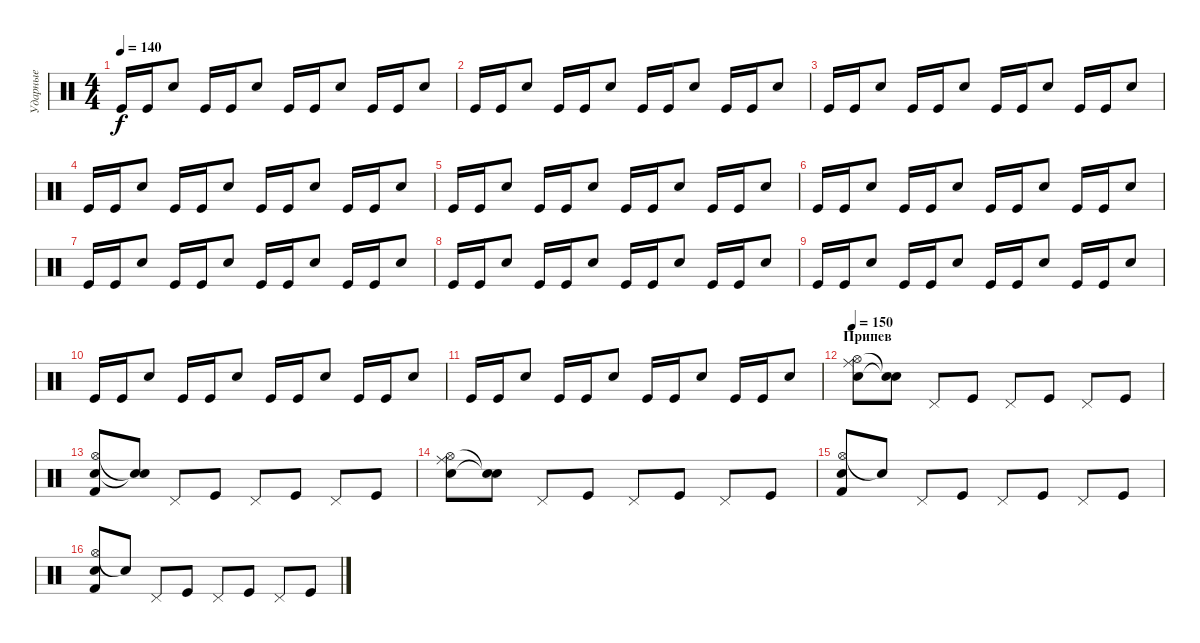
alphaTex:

\track ("Ударные" "Ударные") {instrument percussion}
\staff {score}
\articulation defaults
\ts (4 4)
\tempo 140
\clef neutral
\ks c "Kick (hit)".16{dy f} "Kick (hit)".16 "Electric Snare (hit)".8 "Kick (hit)".16 "Kick (hit)".16 "Electric Snare (hit)".8 "Kick (hit)".16 "Kick (hit)".16 "Electric Snare (hit)".8 "Kick (hit)".16 "Kick (hit)".16 "Electric Snare (hit)".8
|
"Kick (hit)".16 "Kick (hit)".16 "Electric Snare (hit)".8 "Kick (hit)".16 "Kick (hit)".16 "Electric Snare (hit)".8 "Kick (hit)".16 "Kick (hit)".16 "Electric Snare (hit)".8 "Kick (hit)".16 "Kick (hit)".16 "Electric Snare (hit)".8 |
"Kick (hit)".16 "Kick (hit)".16 "Electric Snare (hit)".8 "Kick (hit)".16 "Kick (hit)".16 "Electric Snare (hit)".8 "Kick (hit)".16 "Kick (hit)".16 "Electric Snare (hit)".8 "Kick (hit)".16 "Kick (hit)".16 "Electric Snare (hit)".8 |
"Kick (hit)".16 "Kick (hit)".16 "Electric Snare (hit)".8 "Kick (hit)".16 "Kick (hit)".16 "Electric Snare (hit)".8 "Kick (hit)".16 "Kick (hit)".16 "Electric Snare (hit)".8 "Kick (hit)".16 "Kick (hit)".16 "Electric Snare (hit)".8 |
"Kick (hit)".16 "Kick (hit)".16 "Electric Snare (hit)".8 "Kick (hit)".16 "Kick (hit)".16 "Electric Snare (hit)".8 "Kick (hit)".16 "Kick (hit)".16 "Electric Snare (hit)".8 "Kick (hit)".16 "Kick (hit)".16 "Electric Snare (hit)".8 |
"Kick (hit)".16 "Kick (hit)".16 "Electric Snare (hit)".8 "Kick (hit)".16 "Kick (hit)".16 "Electric Snare (hit)".8 "Kick (hit)".16 "Kick (hit)".16 "Electric Snare (hit)".8 "Kick (hit)".16 "Kick (hit)".16 "Electric Snare (hit)".8 |
"Kick (hit)".16 "Kick (hit)".16 "Electric Snare (hit)".8 "Kick (hit)".16 "Kick (hit)".16 "Electric Snare (hit)".8 "Kick (hit)".16 "Kick (hit)".16 "Electric Snare (hit)".8 "Kick (hit)".16 "Kick (hit)".16 "Electric Snare (hit)".8 |
"Kick (hit)".16 "Kick (hit)".16 "Electric Snare (hit)".8 "Kick (hit)".16 "Kick (hit)".16 "Electric Snare (hit)".8 "Kick (hit)".16 "Kick (hit)".16 "Electric Snare (hit)".8 "Kick (hit)".16 "Kick (hit)".16 "Electric Snare (hit)".8 |
"Kick (hit)".16 "Kick (hit)".16 "Electric Snare (hit)".8 "Kick (hit)".16 "Kick (hit)".16 "Electric Snare (hit)".8 "Kick (hit)".16 "Kick (hit)".16 "Electric Snare (hit)".8 "Kick (hit)".16 "Kick (hit)".16 "Electric Snare (hit)".8 |
"Kick (hit)".16 "Kick (hit)".16 "Electric Snare (hit)".8 "Kick (hit)".16 "Kick (hit)".16 "Electric Snare (hit)".8 "Kick (hit)".16 "Kick (hit)".16 "Electric Snare (hit)".8 "Kick (hit)".16 "Kick (hit)".16 "Electric Snare (hit)".8 |
"Kick (hit)".16 "Kick (hit)".16 "Electric Snare (hit)".8 "Kick (hit)".16 "Kick (hit)".16 "Electric Snare (hit)".8 "Kick (hit)".16 "Kick (hit)".16 "Electric Snare (hit)".8 "Kick (hit)".16 "Kick (hit)".16 "Electric Snare (hit)".8 |
\section ("" "Припев")
\tempo 150
("Hi-Hat (open)" "Electric Snare (hit)" "Ride (middle)").8 ("Electric Snare (hit)"{t} "Snare (hit)"{t}).8 "Pedal Hi-Hat (hit)".8 "Kick (hit)".8 "Pedal Hi-Hat (hit)".8 "Kick (hit)".8 "Pedal Hi-Hat (hit)".8 "Kick (hit)".8 |
("Hi-Hat (open)" "Electric Snare (hit)" "Kick (hit) 2").8 ("Electric Snare (hit)"{t} "Snare (hit)"{t}).8 "Pedal Hi-Hat (hit)".8 "Kick (hit)".8 "Pedal Hi-Hat (hit)".8 "Kick (hit)".8 "Pedal Hi-Hat (hit)".8 "Kick (hit)".8 |
("Hi-Hat (open)" "Electric Snare (hit)" "Ride (middle)").8 ("Electric Snare (hit)"{t} "Snare (hit)"{t}).8 "Pedal Hi-Hat (hit)".8 "Kick (hit)".8 "Pedal Hi-Hat (hit)".8 "Kick (hit)".8 "Pedal Hi-Hat (hit)".8 "Kick (hit)".8 |
("Hi-Hat (open)" "Electric Snare (hit)" "Kick (hit) 2").8 "Electric Snare (hit)"{t}.8 "Pedal Hi-Hat (hit)".8 "Kick (hit)".8 "Pedal Hi-Hat (hit)".8 "Kick (hit)".8 "Pedal Hi-Hat (hit)".8 "Kick (hit)".8 |
("Hi-Hat (open)" "Electric Snare (hit)" "Kick (hit) 2").8 "Electric Snare (hit)"{t}.8 "Pedal Hi-Hat (hit)".8 "Kick (hit)".8 "Pedal Hi-Hat (hit)".8 "Kick (hit)".8 "Pedal Hi-Hat (hit)".8 "Kick (hit)".8
